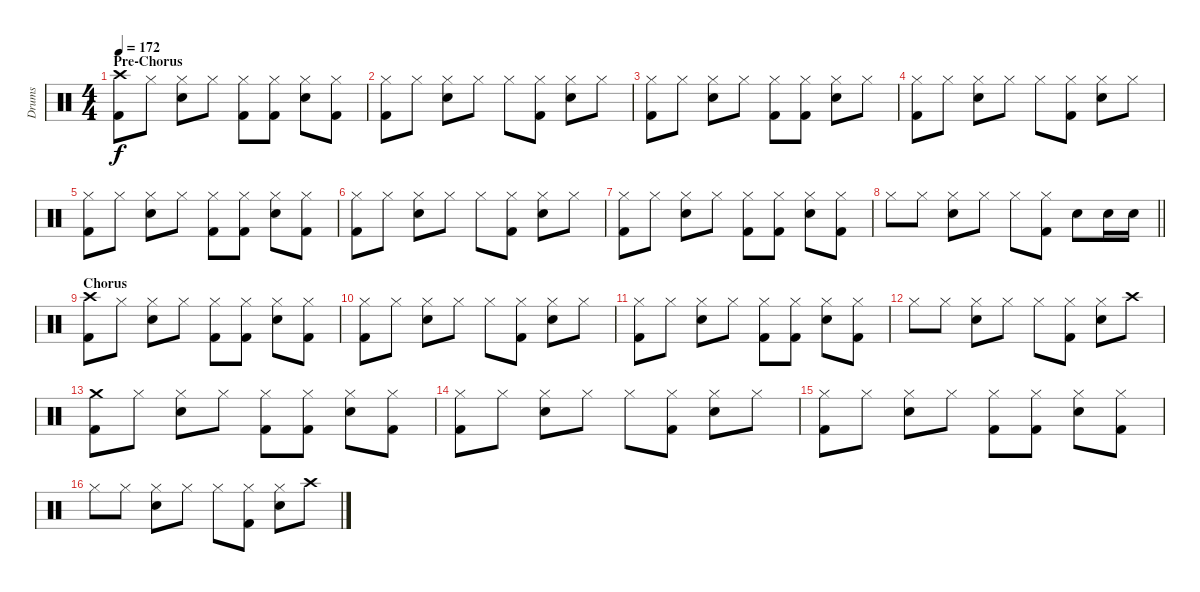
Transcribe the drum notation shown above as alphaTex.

\track ("Drums" "Drums") {instrument percussion}
\staff {score}
\articulation defaults
\ts (4 4)
\section ("" "Pre-Chorus")
\tempo 172
\clef neutral
\ks c
("Crash high (hit)" "Kick (hit) 2").8{dy f} "Hi-Hat (closed)".8 ("Hi-Hat (closed)" "Electric Snare (hit)").8 "Hi-Hat (closed)".8 ("Hi-Hat (closed)" "Kick (hit) 2").8 ("Hi-Hat (closed)" "Kick (hit) 2").8 ("Hi-Hat (closed)" "Electric Snare (hit)").8 ("Hi-Hat (closed)" "Kick (hit) 2").8 |
("Hi-Hat (closed)" "Kick (hit) 2").8 "Hi-Hat (closed)".8 ("Hi-Hat (closed)" "Electric Snare (hit)").8 "Hi-Hat (closed)".8 "Hi-Hat (closed)".8 ("Hi-Hat (closed)" "Kick (hit) 2").8 ("Hi-Hat (closed)" "Electric Snare (hit)").8 "Hi-Hat (closed)".8 |
("Hi-Hat (closed)" "Kick (hit) 2").8 "Hi-Hat (closed)".8 ("Hi-Hat (closed)" "Electric Snare (hit)").8 "Hi-Hat (closed)".8 ("Hi-Hat (closed)" "Kick (hit) 2").8 ("Hi-Hat (closed)" "Kick (hit) 2").8 ("Hi-Hat (closed)" "Electric Snare (hit)").8 "Hi-Hat (closed)".8 |
("Hi-Hat (closed)" "Kick (hit) 2").8 "Hi-Hat (closed)".8 ("Hi-Hat (closed)" "Electric Snare (hit)").8 "Hi-Hat (closed)".8 "Hi-Hat (closed)".8 ("Hi-Hat (closed)" "Kick (hit) 2").8 ("Hi-Hat (closed)" "Electric Snare (hit)").8 "Hi-Hat (closed)".8 |
("Hi-Hat (closed)" "Kick (hit) 2").8 "Hi-Hat (closed)".8 ("Hi-Hat (closed)" "Electric Snare (hit)").8 "Hi-Hat (closed)".8 ("Hi-Hat (closed)" "Kick (hit) 2").8 ("Hi-Hat (closed)" "Kick (hit) 2").8 ("Hi-Hat (closed)" "Electric Snare (hit)").8 ("Hi-Hat (closed)" "Kick (hit) 2").8 |
("Hi-Hat (closed)" "Kick (hit) 2").8 "Hi-Hat (closed)".8 ("Hi-Hat (closed)" "Electric Snare (hit)").8 "Hi-Hat (closed)".8 "Hi-Hat (closed)".8 ("Hi-Hat (closed)" "Kick (hit) 2").8 ("Hi-Hat (closed)" "Electric Snare (hit)").8 "Hi-Hat (closed)".8 |
("Hi-Hat (closed)" "Kick (hit) 2").8 "Hi-Hat (closed)".8 ("Hi-Hat (closed)" "Electric Snare (hit)").8 "Hi-Hat (closed)".8 ("Hi-Hat (closed)" "Kick (hit) 2").8 ("Hi-Hat (closed)" "Kick (hit) 2").8 ("Hi-Hat (closed)" "Electric Snare (hit)").8 ("Hi-Hat (closed)" "Kick (hit) 2").8 |
\barLineRight lightlight "Hi-Hat (closed)".8 "Hi-Hat (closed)".8
("Hi-Hat (closed)" "Electric Snare (hit)").8 "Hi-Hat (closed)".8 "Hi-Hat (closed)".8 ("Hi-Hat (closed)" "Kick (hit) 2").8 "Electric Snare (hit)".8 "Electric Snare (hit)".16 "Electric Snare (hit)".16 |
\section ("" "Chorus")
("Crash high (hit)" "Kick (hit) 2").8 "Hi-Hat (closed)".8 ("Hi-Hat (closed)" "Electric Snare (hit)").8 "Hi-Hat (closed)".8 ("Hi-Hat (closed)" "Kick (hit) 2").8 ("Hi-Hat (closed)" "Kick (hit) 2").8 ("Hi-Hat (closed)" "Electric Snare (hit)").8 ("Hi-Hat (closed)" "Kick (hit) 2").8 |
("Hi-Hat (closed)" "Kick (hit) 2").8 "Hi-Hat (closed)".8 ("Hi-Hat (closed)" "Electric Snare (hit)").8 "Hi-Hat (closed)".8 "Hi-Hat (closed)".8 ("Hi-Hat (closed)" "Kick (hit) 2").8 ("Hi-Hat (closed)" "Electric Snare (hit)").8 "Hi-Hat (closed)".8 |
("Hi-Hat (closed)" "Kick (hit) 2").8 "Hi-Hat (closed)".8 ("Hi-Hat (closed)" "Electric Snare (hit)").8 "Hi-Hat (closed)".8 ("Hi-Hat (closed)" "Kick (hit) 2").8 ("Hi-Hat (closed)" "Kick (hit) 2").8 ("Hi-Hat (closed)" "Electric Snare (hit)").8 ("Hi-Hat (closed)" "Kick (hit) 2").8 |
"Hi-Hat (closed)".8 "Hi-Hat (closed)".8 ("Hi-Hat (closed)" "Electric Snare (hit)").8 "Hi-Hat (closed)".8 "Hi-Hat (closed)".8 ("Hi-Hat (closed)" "Kick (hit) 2").8 ("Hi-Hat (closed)" "Electric Snare (hit)").8 "Crash high (hit)".8 |
("Crash medium (hit)" "Kick (hit) 2").8 "Hi-Hat (closed)".8 ("Hi-Hat (closed)" "Electric Snare (hit)").8 "Hi-Hat (closed)".8 ("Hi-Hat (closed)" "Kick (hit) 2").8 ("Hi-Hat (closed)" "Kick (hit) 2").8 ("Hi-Hat (closed)" "Electric Snare (hit)").8 ("Hi-Hat (closed)" "Kick (hit) 2").8 |
("Hi-Hat (closed)" "Kick (hit) 2").8 "Hi-Hat (closed)".8 ("Hi-Hat (closed)" "Electric Snare (hit)").8 "Hi-Hat (closed)".8 "Hi-Hat (closed)".8 ("Hi-Hat (closed)" "Kick (hit) 2").8 ("Hi-Hat (closed)" "Electric Snare (hit)").8 "Hi-Hat (closed)".8 |
("Hi-Hat (closed)" "Kick (hit) 2").8 "Hi-Hat (closed)".8 ("Hi-Hat (closed)" "Electric Snare (hit)").8 "Hi-Hat (closed)".8 ("Hi-Hat (closed)" "Kick (hit) 2").8 ("Hi-Hat (closed)" "Kick (hit) 2").8 ("Hi-Hat (closed)" "Electric Snare (hit)").8 ("Hi-Hat (closed)" "Kick (hit) 2").8 |
"Hi-Hat (closed)".8 "Hi-Hat (closed)".8 ("Hi-Hat (closed)" "Electric Snare (hit)").8 "Hi-Hat (closed)".8 "Hi-Hat (closed)".8 ("Hi-Hat (closed)" "Kick (hit) 2").8 ("Hi-Hat (closed)" "Electric Snare (hit)").8 "Crash high (hit)".8
